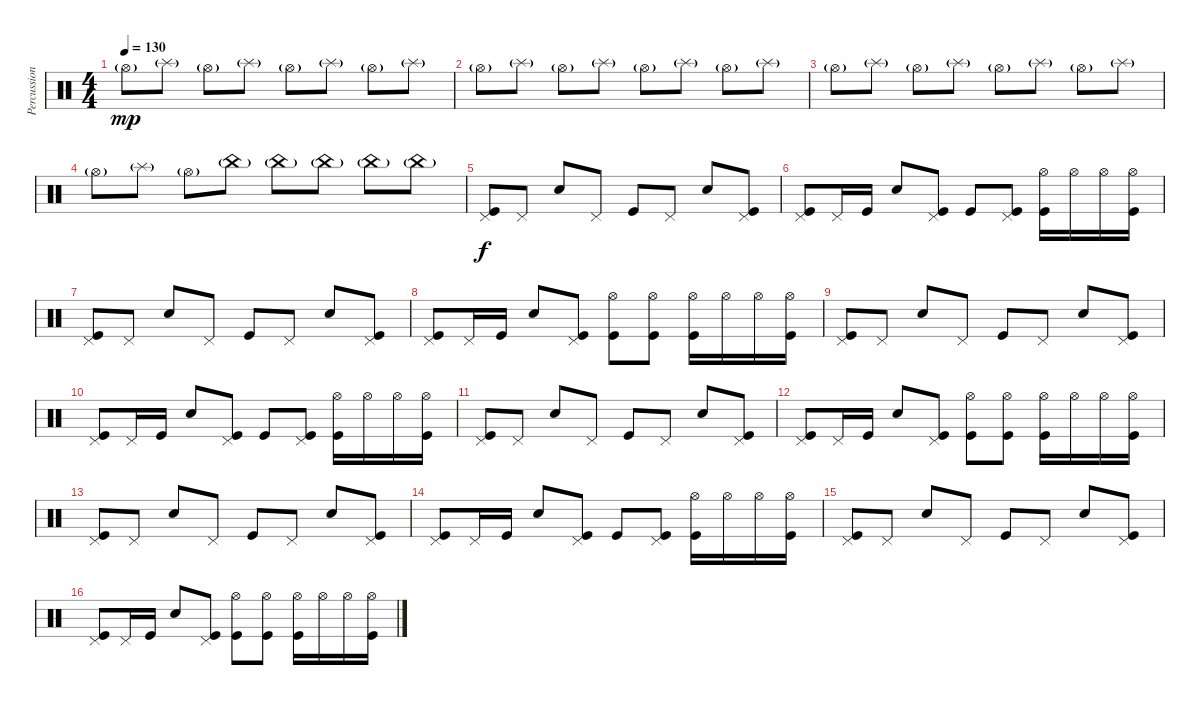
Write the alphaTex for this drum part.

\track ("Percussion" "Percussion") {instrument percussion}
\staff {score}
\articulation defaults
\ts (4 4)
\tempo 130
\clef neutral
\ks c "Hi-Hat (open)"{g}.8{dy mp} "Splash (hit)"{g}.8 "Hi-Hat (open)"{g}.8 "Splash (hit)"{g}.8 "Hi-Hat (open)"{g}.8 "Splash (hit)"{g}.8 "Hi-Hat (open)"{g}.8 "Splash (hit)"{g}.8
|
"Hi-Hat (open)"{g}.8 "Splash (hit)"{g}.8 "Hi-Hat (open)"{g}.8 "Splash (hit)"{g}.8 "Hi-Hat (open)"{g}.8 "Splash (hit)"{g}.8 "Hi-Hat (open)"{g}.8 "Splash (hit)"{g}.8 |
"Hi-Hat (open)"{g}.8 "Splash (hit)"{g}.8 "Hi-Hat (open)"{g}.8 "Splash (hit)"{g}.8 "Hi-Hat (open)"{g}.8 "Splash (hit)"{g}.8 "Hi-Hat (open)"{g}.8 "Splash (hit)"{g}.8 |
"Hi-Hat (open)"{g}.8 "Splash (hit)"{g}.8 "Hi-Hat (open)"{g}.8 "China (hit)"{g}.8 "China (hit)"{g}.8 "China (hit)"{g}.8 "China (hit)"{g}.8 "China (hit)"{g}.8 |
("Pedal Hi-Hat (hit)" "Kick (hit)").8{dy f} "Pedal Hi-Hat (hit)".8 "Electric Snare (hit)".8 "Pedal Hi-Hat (hit)".8 "Kick (hit)".8 "Pedal Hi-Hat (hit)".8 "Electric Snare (hit)".8 ("Pedal Hi-Hat (hit)" "Kick (hit)").8 |
("Pedal Hi-Hat (hit)" "Kick (hit)").8 "Pedal Hi-Hat (hit)".16 "Kick (hit)".16 "Electric Snare (hit)".8 ("Pedal Hi-Hat (hit)" "Kick (hit)").8 "Kick (hit)".8 ("Pedal Hi-Hat (hit)" "Kick (hit)").8 ("Hi-Hat (open)" "Kick (hit)").16 "Hi-Hat (open)".16 "Hi-Hat (open)".16 ("Hi-Hat (open)" "Kick (hit)").16 |
("Pedal Hi-Hat (hit)" "Kick (hit)").8 "Pedal Hi-Hat (hit)".8 "Electric Snare (hit)".8 "Pedal Hi-Hat (hit)".8 "Kick (hit)".8 "Pedal Hi-Hat (hit)".8 "Electric Snare (hit)".8 ("Pedal Hi-Hat (hit)" "Kick (hit)").8 |
("Pedal Hi-Hat (hit)" "Kick (hit)").8 "Pedal Hi-Hat (hit)".16 "Kick (hit)".16 "Electric Snare (hit)".8 ("Pedal Hi-Hat (hit)" "Kick (hit)").8 ("Hi-Hat (open)" "Kick (hit)").8 ("Hi-Hat (open)" "Kick (hit)").8 ("Hi-Hat (open)" "Kick (hit)").16 "Hi-Hat (open)".16 "Hi-Hat (open)".16 ("Hi-Hat (open)" "Kick (hit)").16 |
("Pedal Hi-Hat (hit)" "Kick (hit)").8 "Pedal Hi-Hat (hit)".8 "Electric Snare (hit)".8 "Pedal Hi-Hat (hit)".8 "Kick (hit)".8 "Pedal Hi-Hat (hit)".8 "Electric Snare (hit)".8 ("Pedal Hi-Hat (hit)" "Kick (hit)").8 |
("Pedal Hi-Hat (hit)" "Kick (hit)").8 "Pedal Hi-Hat (hit)".16 "Kick (hit)".16 "Electric Snare (hit)".8 ("Pedal Hi-Hat (hit)" "Kick (hit)").8 "Kick (hit)".8 ("Pedal Hi-Hat (hit)" "Kick (hit)").8 ("Hi-Hat (open)" "Kick (hit)").16 "Hi-Hat (open)".16 "Hi-Hat (open)".16 ("Hi-Hat (open)" "Kick (hit)").16 |
("Pedal Hi-Hat (hit)" "Kick (hit)").8 "Pedal Hi-Hat (hit)".8 "Electric Snare (hit)".8 "Pedal Hi-Hat (hit)".8 "Kick (hit)".8 "Pedal Hi-Hat (hit)".8 "Electric Snare (hit)".8 ("Pedal Hi-Hat (hit)" "Kick (hit)").8 |
("Pedal Hi-Hat (hit)" "Kick (hit)").8 "Pedal Hi-Hat (hit)".16 "Kick (hit)".16 "Electric Snare (hit)".8 ("Pedal Hi-Hat (hit)" "Kick (hit)").8 ("Hi-Hat (open)" "Kick (hit)").8 ("Hi-Hat (open)" "Kick (hit)").8 ("Hi-Hat (open)" "Kick (hit)").16 "Hi-Hat (open)".16 "Hi-Hat (open)".16 ("Hi-Hat (open)" "Kick (hit)").16 |
("Pedal Hi-Hat (hit)" "Kick (hit)").8 "Pedal Hi-Hat (hit)".8 "Electric Snare (hit)".8 "Pedal Hi-Hat (hit)".8 "Kick (hit)".8 "Pedal Hi-Hat (hit)".8 "Electric Snare (hit)".8 ("Pedal Hi-Hat (hit)" "Kick (hit)").8 |
("Pedal Hi-Hat (hit)" "Kick (hit)").8 "Pedal Hi-Hat (hit)".16 "Kick (hit)".16 "Electric Snare (hit)".8 ("Pedal Hi-Hat (hit)" "Kick (hit)").8 "Kick (hit)".8 ("Pedal Hi-Hat (hit)" "Kick (hit)").8 ("Hi-Hat (open)" "Kick (hit)").16 "Hi-Hat (open)".16 "Hi-Hat (open)".16 ("Hi-Hat (open)" "Kick (hit)").16 |
("Pedal Hi-Hat (hit)" "Kick (hit)").8 "Pedal Hi-Hat (hit)".8 "Electric Snare (hit)".8 "Pedal Hi-Hat (hit)".8 "Kick (hit)".8 "Pedal Hi-Hat (hit)".8 "Electric Snare (hit)".8 ("Pedal Hi-Hat (hit)" "Kick (hit)").8 |
("Pedal Hi-Hat (hit)" "Kick (hit)").8 "Pedal Hi-Hat (hit)".16 "Kick (hit)".16 "Electric Snare (hit)".8 ("Pedal Hi-Hat (hit)" "Kick (hit)").8 ("Hi-Hat (open)" "Kick (hit)").8 ("Hi-Hat (open)" "Kick (hit)").8 ("Hi-Hat (open)" "Kick (hit)").16 "Hi-Hat (open)".16 "Hi-Hat (open)".16 ("Hi-Hat (open)" "Kick (hit)").16
